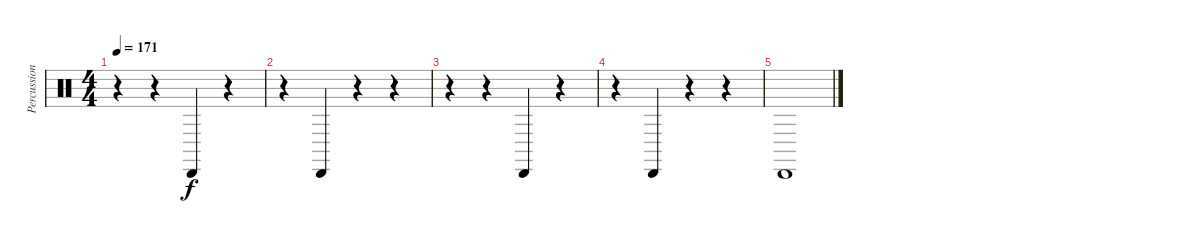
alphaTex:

\track ("Percussion" "Percussion") {instrument percussion}
\staff {score}
\articulation defaults
\ts (4 4)
\tempo 171
\clef neutral
\ks c
r.4{dy f} r.4 "Cabasa (hit)".4 r.4 |
r.4 "Cabasa (hit)".4 r.4 r.4 |
r.4 r.4 "Cabasa (hit)".4 r.4 |
r.4 "Cabasa (hit)".4 r.4 r.4 |
"Cabasa (hit)".1
